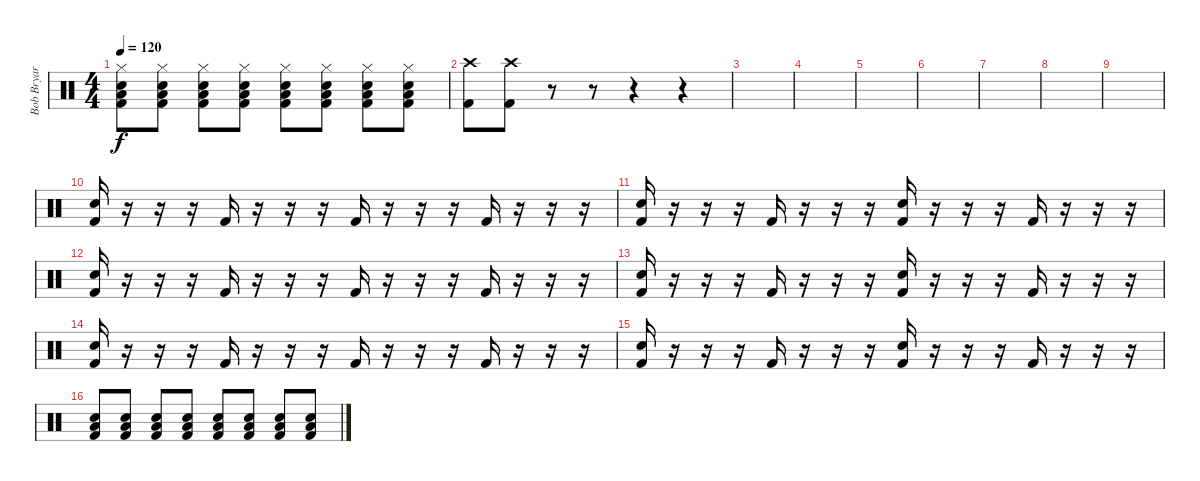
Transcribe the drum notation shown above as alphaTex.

\track ("Bob Bryar" "Bob Bryar") {instrument percussion}
\staff {score}
\articulation defaults
\ts (4 4)
\tempo 120
\clef neutral
\ks c
("Hi-Hat (closed)" "Snare (hit) 2" "Low Tom (hit)" "Kick (hit) 2").8{dy f volume 10} ("Hi-Hat (closed)" "Snare (hit) 2" "Low Tom (hit)" "Kick (hit) 2").8{volume 11} ("Hi-Hat (closed)" "Snare (hit) 2" "Low Tom (hit)" "Kick (hit) 2").8{volume 12} ("Hi-Hat (closed)" "Snare (hit) 2" "Low Tom (hit)" "Kick (hit) 2").8{volume 13} ("Hi-Hat (closed)" "Snare (hit) 2" "Low Tom (hit)" "Kick (hit) 2").8 ("Hi-Hat (closed)" "Snare (hit) 2" "Low Tom (hit)" "Kick (hit) 2").8 ("Hi-Hat (closed)" "Snare (hit) 2" "Low Tom (hit)" "Kick (hit) 2").8 ("Hi-Hat (closed)" "Snare (hit) 2" "Low Tom (hit)" "Kick (hit) 2").8 |
("Crash high (hit)" "Kick (hit) 2").8 ("Crash high (hit)" "Kick (hit) 2").8 r.8 r.8 r.4 r.4 |
|
|
|
|
|
|
|
("Snare (hit) 2" "Kick (hit) 2").16 r.16 r.16 r.16 "Kick (hit) 2".16 r.16 r.16 r.16 "Kick (hit) 2".16 r.16 r.16 r.16 "Kick (hit) 2".16 r.16 r.16 r.16 |
("Snare (hit) 2" "Kick (hit) 2").16 r.16 r.16 r.16 "Kick (hit) 2".16 r.16 r.16 r.16 ("Snare (hit) 2" "Kick (hit) 2").16 r.16 r.16 r.16 "Kick (hit) 2".16 r.16 r.16 r.16 |
("Snare (hit) 2" "Kick (hit) 2").16 r.16 r.16 r.16 "Kick (hit) 2".16 r.16 r.16 r.16 "Kick (hit) 2".16 r.16 r.16 r.16 "Kick (hit) 2".16 r.16 r.16 r.16 |
("Snare (hit) 2" "Kick (hit) 2").16 r.16 r.16 r.16 "Kick (hit) 2".16 r.16 r.16 r.16 ("Snare (hit) 2" "Kick (hit) 2").16 r.16 r.16 r.16 "Kick (hit) 2".16 r.16 r.16 r.16 |
("Snare (hit) 2" "Kick (hit) 2").16 r.16 r.16 r.16 "Kick (hit) 2".16 r.16 r.16 r.16 "Kick (hit) 2".16 r.16 r.16 r.16 "Kick (hit) 2".16 r.16 r.16 r.16 |
("Snare (hit) 2" "Kick (hit) 2").16 r.16 r.16 r.16 "Kick (hit) 2".16 r.16 r.16 r.16 ("Snare (hit) 2" "Kick (hit) 2").16 r.16 r.16 r.16 "Kick (hit) 2".16 r.16 r.16 r.16 |
("Snare (hit) 2" "Low Tom (hit)" "Kick (hit) 2").8 ("Snare (hit) 2" "Low Tom (hit)" "Kick (hit) 2").8{volume 3} ("Snare (hit) 2" "Low Tom (hit)" "Kick (hit) 2").8{volume 3} ("Snare (hit) 2" "Low Tom (hit)" "Kick (hit) 2").8{volume 4} ("Snare (hit) 2" "Low Tom (hit)" "Kick (hit) 2").8{volume 6} ("Snare (hit) 2" "Low Tom (hit)" "Kick (hit) 2").8{volume 7} ("Snare (hit) 2" "Low Tom (hit)" "Kick (hit) 2").8{volume 8} ("Snare (hit) 2" "Low Tom (hit)" "Kick (hit) 2").8{volume 9}
